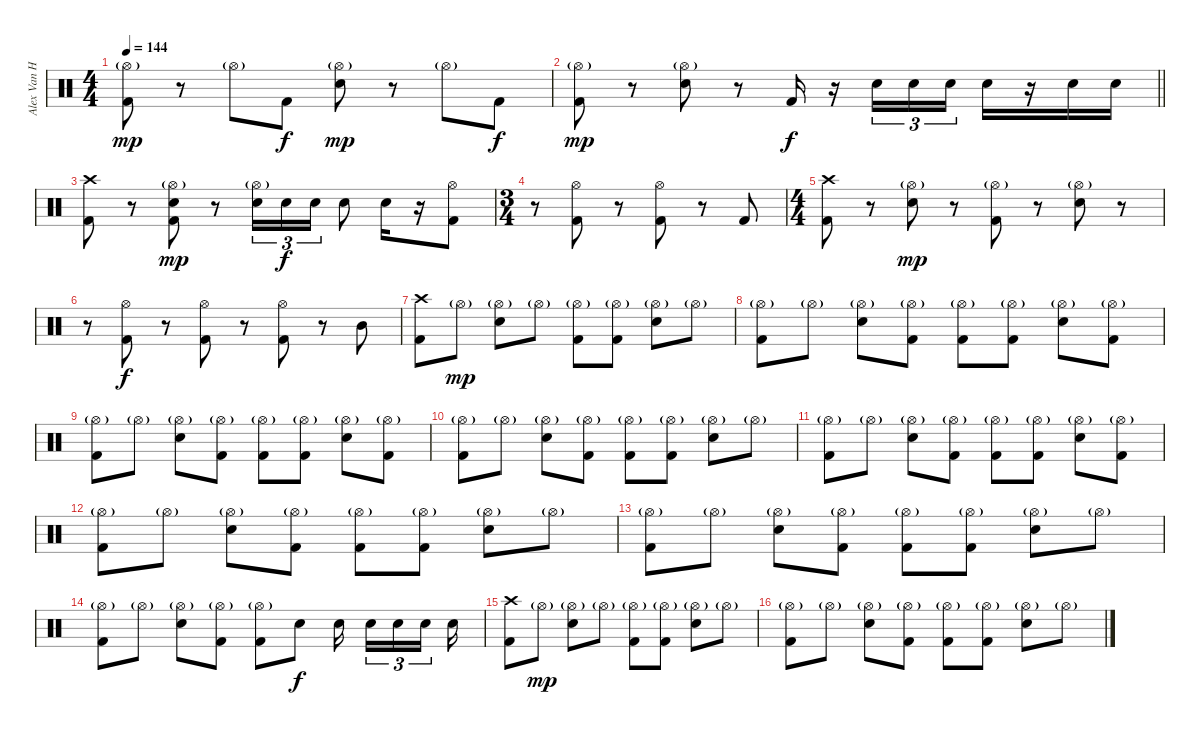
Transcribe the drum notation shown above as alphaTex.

\track ("Alex Van Halen" "Alex Van H") {instrument percussion}
\staff {score}
\articulation defaults
\ts (4 4)
\tempo 144
\clef neutral
\ks c
("Hi-Hat (open)"{g} "Kick (hit) 2").8{dy mp} r.8 "Hi-Hat (open)"{g}.8 "Kick (hit) 2".8{dy f} ("Hi-Hat (open)"{g} "Electric Snare (hit)").8{dy mp} r.8 "Hi-Hat (open)"{g}.8 "Kick (hit) 2".8{dy f} |
\barLineRight lightlight
("Hi-Hat (open)"{g} "Kick (hit) 2").8{dy mp} r.8 ("Hi-Hat (open)"{g} "Electric Snare (hit)").8 r.8 "Kick (hit) 2".16{dy f} r.16 "Electric Snare (hit)".16{tu (3 2)} "Electric Snare (hit)".16{tu (3 2)} "Electric Snare (hit)".16{tu (3 2)} "Electric Snare (hit)".16 r.16 "Electric Snare (hit)".16 "Electric Snare (hit)".16 |
("Crash high (hit)" "Kick (hit) 2").8 r.8 ("Hi-Hat (open)"{g} "Electric Snare (hit)" "Kick (hit) 2").8{dy mp} r.8 ("Hi-Hat (open)"{g} "Electric Snare (hit)").16{tu (3 2)} "Electric Snare (hit)".16{tu (3 2) dy f} "Electric Snare (hit)".16{tu (3 2)} "Electric Snare (hit)".8 "Electric Snare (hit)".16 r.16 ("Hi-Hat (open)" "Kick (hit) 2").8 |
\ts (3 4)
r.8 ("Hi-Hat (open)" "Kick (hit) 2").8 r.8 ("Hi-Hat (open)" "Kick (hit) 2").8 r.8 "Kick (hit) 2".8 |
\ts (4 4)
("Crash high (hit)" "Kick (hit) 2").8 r.8 ("Hi-Hat (open)"{g} "Electric Snare (hit)").8{dy mp} r.8 ("Hi-Hat (open)"{g} "Kick (hit) 2").8 r.8 ("Hi-Hat (open)"{g} "Electric Snare (hit)").8 r.8 |
r.8 ("Hi-Hat (open)" "Kick (hit) 2").8{dy f} r.8 ("Hi-Hat (open)" "Kick (hit) 2").8 r.8 ("Hi-Hat (open)" "Kick (hit) 2").8 r.8 "Mid Tom (hit)".8 |
("Crash high (hit)" "Kick (hit) 2").8 "Hi-Hat (open)"{g}.8{dy mp} ("Hi-Hat (open)"{g} "Electric Snare (hit)").8 "Hi-Hat (open)"{g}.8 ("Hi-Hat (open)"{g} "Kick (hit) 2").8 ("Hi-Hat (open)"{g} "Kick (hit) 2").8 ("Hi-Hat (open)"{g} "Electric Snare (hit)").8 "Hi-Hat (open)"{g}.8 |
("Hi-Hat (open)"{g} "Kick (hit) 2").8 "Hi-Hat (open)"{g}.8 ("Hi-Hat (open)"{g} "Electric Snare (hit)").8 ("Hi-Hat (open)"{g} "Kick (hit) 2").8 ("Hi-Hat (open)"{g} "Kick (hit) 2").8 ("Hi-Hat (open)"{g} "Kick (hit) 2").8 ("Hi-Hat (open)"{g} "Electric Snare (hit)").8 ("Hi-Hat (open)"{g} "Kick (hit) 2").8 |
("Hi-Hat (open)"{g} "Kick (hit) 2").8 "Hi-Hat (open)"{g}.8 ("Hi-Hat (open)"{g} "Electric Snare (hit)").8 ("Hi-Hat (open)"{g} "Kick (hit) 2").8 ("Hi-Hat (open)"{g} "Kick (hit) 2").8 ("Hi-Hat (open)"{g} "Kick (hit) 2").8 ("Hi-Hat (open)"{g} "Electric Snare (hit)").8 ("Hi-Hat (open)"{g} "Kick (hit) 2").8 |
("Hi-Hat (open)"{g} "Kick (hit) 2").8 "Hi-Hat (open)"{g}.8 ("Hi-Hat (open)"{g} "Electric Snare (hit)").8 ("Hi-Hat (open)"{g} "Kick (hit) 2").8 ("Hi-Hat (open)"{g} "Kick (hit) 2").8 ("Hi-Hat (open)"{g} "Kick (hit) 2").8 ("Hi-Hat (open)"{g} "Electric Snare (hit)").8 "Hi-Hat (open)"{g}.8 |
("Hi-Hat (open)"{g} "Kick (hit) 2").8 "Hi-Hat (open)"{g}.8 ("Hi-Hat (open)"{g} "Electric Snare (hit)").8 ("Hi-Hat (open)"{g} "Kick (hit) 2").8 ("Hi-Hat (open)"{g} "Kick (hit) 2").8 ("Hi-Hat (open)"{g} "Kick (hit) 2").8 ("Hi-Hat (open)"{g} "Electric Snare (hit)").8 ("Hi-Hat (open)"{g} "Kick (hit) 2").8 |
("Hi-Hat (open)"{g} "Kick (hit) 2").8 "Hi-Hat (open)"{g}.8 ("Hi-Hat (open)"{g} "Electric Snare (hit)").8 ("Hi-Hat (open)"{g} "Kick (hit) 2").8 ("Hi-Hat (open)"{g} "Kick (hit) 2").8 ("Hi-Hat (open)"{g} "Kick (hit) 2").8 ("Hi-Hat (open)"{g} "Electric Snare (hit)").8 "Hi-Hat (open)"{g}.8 |
("Hi-Hat (open)"{g} "Kick (hit) 2").8 "Hi-Hat (open)"{g}.8 ("Hi-Hat (open)"{g} "Electric Snare (hit)").8 ("Hi-Hat (open)"{g} "Kick (hit) 2").8 ("Hi-Hat (open)"{g} "Kick (hit) 2").8 ("Hi-Hat (open)"{g} "Kick (hit) 2").8 ("Hi-Hat (open)"{g} "Electric Snare (hit)").8 "Hi-Hat (open)"{g}.8 |
("Hi-Hat (open)"{g} "Kick (hit) 2").8 "Hi-Hat (open)"{g}.8 ("Hi-Hat (open)"{g} "Electric Snare (hit)").8 ("Hi-Hat (open)"{g} "Kick (hit) 2").8 ("Hi-Hat (open)"{g} "Kick (hit) 2").8 "Electric Snare (hit)".8{dy f} "Electric Snare (hit)".16{beam splitsecondary} "Electric Snare (hit)".16{tu (3 2)} "Electric Snare (hit)".16{tu (3 2)} "Electric Snare (hit)".16{tu (3 2) beam splitsecondary} "Electric Snare (hit)".16 |
("Crash high (hit)" "Kick (hit) 2").8 "Hi-Hat (open)"{g}.8{dy mp} ("Hi-Hat (open)"{g} "Electric Snare (hit)").8 "Hi-Hat (open)"{g}.8 ("Hi-Hat (open)"{g} "Kick (hit) 2").8 ("Hi-Hat (open)"{g} "Kick (hit) 2").8 ("Hi-Hat (open)"{g} "Electric Snare (hit)").8 "Hi-Hat (open)"{g}.8 |
("Hi-Hat (open)"{g} "Kick (hit) 2").8 "Hi-Hat (open)"{g}.8 ("Hi-Hat (open)"{g} "Electric Snare (hit)").8 ("Hi-Hat (open)"{g} "Kick (hit) 2").8 ("Hi-Hat (open)"{g} "Kick (hit) 2").8 ("Hi-Hat (open)"{g} "Kick (hit) 2").8 ("Hi-Hat (open)"{g} "Electric Snare (hit)").8 "Hi-Hat (open)"{g}.8
